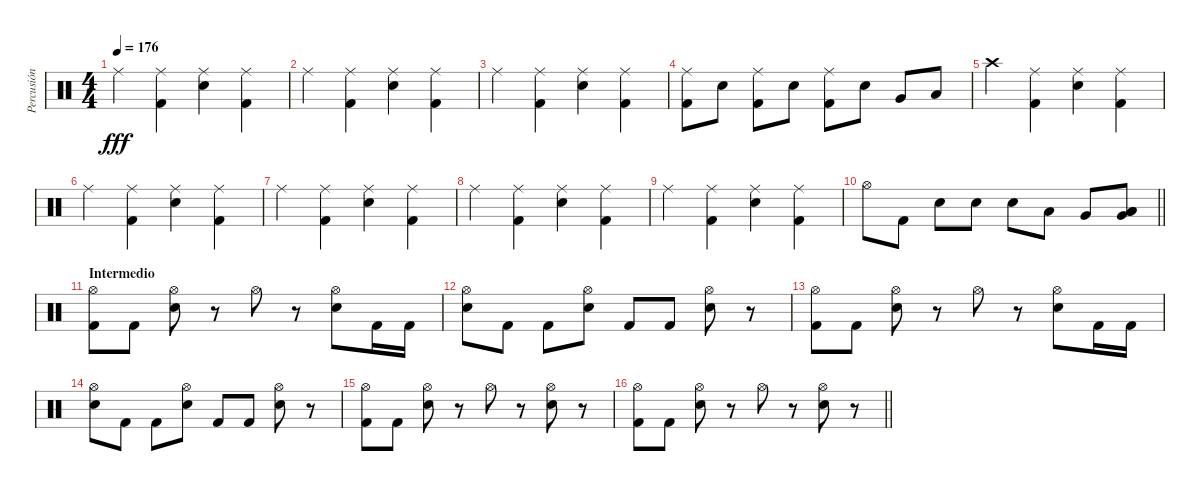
\track ("Percusión" "Percusión") {instrument percussion}
\staff {score}
\articulation defaults
\ts (4 4)
\tempo 176
\clef neutral
\ks c "Ride (middle)".4{dy fff}
("Ride (middle)" "Kick (hit) 2").4 ("Ride (middle)" "Electric Snare (hit)").4 ("Ride (middle)" "Kick (hit) 2").4 |
"Ride (middle)".4 ("Ride (middle)" "Kick (hit) 2").4 ("Ride (middle)" "Electric Snare (hit)").4 ("Ride (middle)" "Kick (hit) 2").4 |
"Ride (middle)".4 ("Ride (middle)" "Kick (hit) 2").4 ("Ride (middle)" "Electric Snare (hit)").4 ("Ride (middle)" "Kick (hit) 2").4 |
("Ride (middle)" "Kick (hit) 2").8 "Electric Snare (hit)".8 ("Ride (middle)" "Kick (hit) 2").8 "Electric Snare (hit)".8 ("Ride (middle)" "Kick (hit) 2").8 "Electric Snare (hit)".8 "Very Low Tom (hit)".8 "Low Floor Tom (hit)".8 |
"Crash high (hit)".4 ("Ride (middle)" "Kick (hit) 2").4 ("Ride (middle)" "Electric Snare (hit)").4 ("Ride (middle)" "Kick (hit) 2").4 |
"Ride (middle)".4 ("Ride (middle)" "Kick (hit) 2").4 ("Ride (middle)" "Electric Snare (hit)").4 ("Ride (middle)" "Kick (hit) 2").4 |
"Ride (middle)".4 ("Ride (middle)" "Kick (hit) 2").4 ("Ride (middle)" "Electric Snare (hit)").4 ("Ride (middle)" "Kick (hit) 2").4 |
"Ride (middle)".4 ("Ride (middle)" "Kick (hit) 2").4 ("Ride (middle)" "Electric Snare (hit)").4 ("Ride (middle)" "Kick (hit) 2").4 |
"Ride (middle)".4 ("Ride (middle)" "Kick (hit) 2").4 ("Ride (middle)" "Electric Snare (hit)").4 ("Ride (middle)" "Kick (hit) 2").4 |
\barLineRight lightlight "Hi-Hat (open)".8 "Kick (hit) 2".8 "Electric Snare (hit)".8 "Electric Snare (hit)".8 "Electric Snare (hit)".8 "Low Tom (hit)".8 "Very Low Tom (hit)".8
("Very Low Tom (hit)" "Low Floor Tom (hit)" "Low Floor Tom (hit)").8 |
\section ("" "Intermedio")
("Hi-Hat (open)" "Kick (hit) 2").8 "Kick (hit) 2".8 ("Hi-Hat (open)" "Electric Snare (hit)").8 r.8 "Hi-Hat (open)".8 r.8 ("Hi-Hat (open)" "Electric Snare (hit)").8 "Kick (hit) 2".16 "Kick (hit) 2".16 |
("Hi-Hat (open)" "Electric Snare (hit)").8 "Kick (hit) 2".8 "Kick (hit) 2".8 ("Hi-Hat (open)" "Electric Snare (hit)").8 "Kick (hit) 2".8 "Kick (hit) 2".8 ("Hi-Hat (open)" "Electric Snare (hit)").8 r.8 |
("Hi-Hat (open)" "Kick (hit) 2").8 "Kick (hit) 2".8 ("Hi-Hat (open)" "Electric Snare (hit)").8 r.8 "Hi-Hat (open)".8 r.8 ("Hi-Hat (open)" "Electric Snare (hit)").8 "Kick (hit) 2".16 "Kick (hit) 2".16 |
("Hi-Hat (open)" "Electric Snare (hit)").8 "Kick (hit) 2".8 "Kick (hit) 2".8 ("Hi-Hat (open)" "Electric Snare (hit)").8 "Kick (hit) 2".8 "Kick (hit) 2".8 ("Hi-Hat (open)" "Electric Snare (hit)").8 r.8 |
("Hi-Hat (open)" "Kick (hit) 2").8 "Kick (hit) 2".8 ("Hi-Hat (open)" "Electric Snare (hit)").8 r.8 "Hi-Hat (open)".8 r.8 ("Hi-Hat (open)" "Electric Snare (hit)").8 r.8 |
\barLineRight lightlight
("Hi-Hat (open)" "Kick (hit) 2").8 "Kick (hit) 2".8 ("Hi-Hat (open)" "Electric Snare (hit)").8 r.8 "Hi-Hat (open)".8 r.8 ("Hi-Hat (open)" "Electric Snare (hit)").8 r.8
